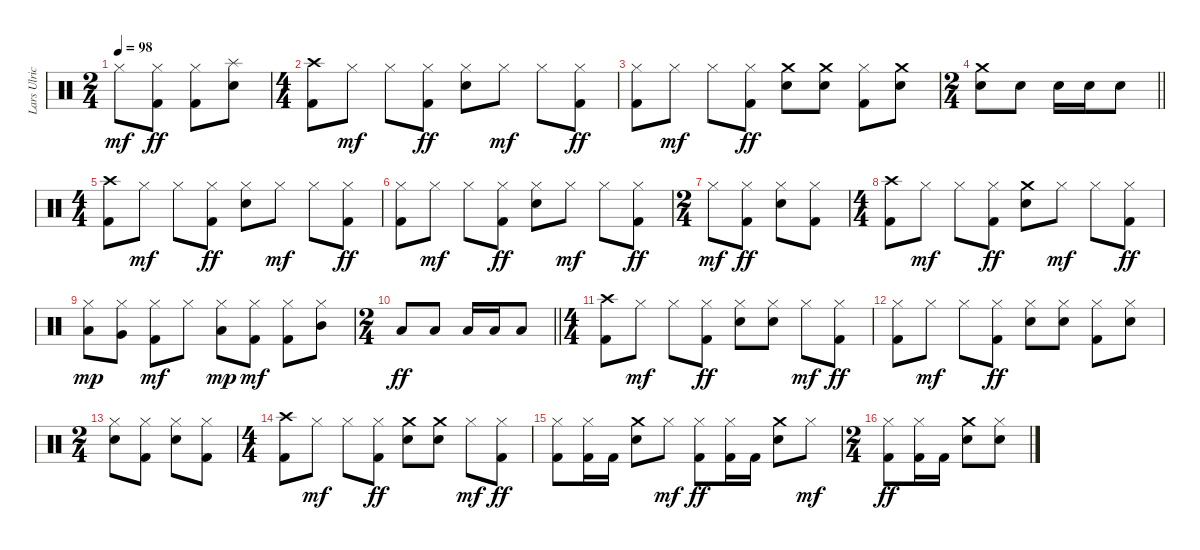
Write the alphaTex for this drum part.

\track ("Lars Ulrich" "Lars Ulric") {instrument percussion}
\staff {score}
\articulation defaults
\ts (2 4)
\tempo 98
\clef neutral
\ks c "Hi-Hat (closed)".8{dy mf}
("Hi-Hat (closed)" "Kick (hit) 2").8{dy ff} ("Hi-Hat (closed)" "Kick (hit) 2").8 ("Splash (hit)" "Snare (hit) 2").8 |
\ts (4 4)
("Crash high (hit)" "Kick (hit) 2").8 "Hi-Hat (closed)".8{dy mf} "Hi-Hat (closed)".8 ("Hi-Hat (closed)" "Kick (hit) 2").8{dy ff} ("Hi-Hat (closed)" "Snare (hit) 2").8 "Hi-Hat (closed)".8{dy mf} "Hi-Hat (closed)".8 ("Hi-Hat (closed)" "Kick (hit) 2").8{dy ff} |
("Hi-Hat (closed)" "Kick (hit) 2").8 "Hi-Hat (closed)".8{dy mf} "Hi-Hat (closed)".8 ("Hi-Hat (closed)" "Kick (hit) 2").8{dy ff} ("Crash medium (hit)" "Snare (hit) 2").8 ("Crash medium (hit)" "Snare (hit) 2").8 ("Hi-Hat (closed)" "Kick (hit) 2").8 ("Crash medium (hit)" "Snare (hit) 2").8 |
\ts (2 4)
\barLineRight lightlight
("Crash medium (hit)" "Snare (hit) 2").8 "Snare (hit) 2".8 "Snare (hit) 2".16 "Snare (hit) 2".16 "Snare (hit) 2".8 |
\ts (4 4)
("Crash high (hit)" "Kick (hit) 2").8 "Hi-Hat (closed)".8{dy mf} "Hi-Hat (closed)".8 ("Hi-Hat (closed)" "Kick (hit) 2").8{dy ff} ("Hi-Hat (closed)" "Snare (hit) 2").8 "Hi-Hat (closed)".8{dy mf} "Hi-Hat (closed)".8 ("Hi-Hat (closed)" "Kick (hit) 2").8{dy ff} |
("Hi-Hat (closed)" "Kick (hit) 2").8 "Hi-Hat (closed)".8{dy mf} "Hi-Hat (closed)".8 ("Hi-Hat (closed)" "Kick (hit) 2").8{dy ff} ("Hi-Hat (closed)" "Snare (hit) 2").8 "Hi-Hat (closed)".8{dy mf} "Hi-Hat (closed)".8 ("Hi-Hat (closed)" "Kick (hit) 2").8{dy ff} |
\ts (2 4)
"Hi-Hat (closed)".8{dy mf} ("Hi-Hat (closed)" "Kick (hit) 2").8{dy ff} ("Hi-Hat (closed)" "Snare (hit) 2").8 ("Hi-Hat (closed)" "Kick (hit) 2").8 |
\ts (4 4)
("Crash high (hit)" "Kick (hit) 2").8 "Hi-Hat (closed)".8{dy mf} "Hi-Hat (closed)".8 ("Hi-Hat (closed)" "Kick (hit) 2").8{dy ff} ("Crash medium (hit)" "Snare (hit) 2").8 "Hi-Hat (closed)".8{dy mf} "Hi-Hat (closed)".8 ("Hi-Hat (closed)" "Kick (hit) 2").8{dy ff} |
("Hi-Hat (closed)" "Low Tom (hit)").8{dy mp} ("Hi-Hat (closed)" "Very Low Tom (hit)").8 ("Hi-Hat (closed)" "Kick (hit) 2").8{dy mf} "Hi-Hat (closed)".8 ("Hi-Hat (closed)" "Low Floor Tom (hit)").8{dy mp} ("Hi-Hat (closed)" "Kick (hit) 2").8{dy mf} ("Hi-Hat (closed)" "Kick (hit) 2").8 ("Hi-Hat (closed)" "Mid Tom (hit)").8 |
\ts (2 4)
\barLineRight lightlight "Low Tom (hit)".8{dy ff} "Low Tom (hit)".8 "Low Floor Tom (hit)".16 "Low Floor Tom (hit)".16 "Low Floor Tom (hit)".8
|
\ts (4 4)
("Crash high (hit)" "Kick (hit) 2").8 "Hi-Hat (closed)".8{dy mf} "Hi-Hat (closed)".8 ("Hi-Hat (closed)" "Kick (hit) 2").8{dy ff} ("Hi-Hat (closed)" "Snare (hit) 2").8 ("Hi-Hat (closed)" "Snare (hit) 2").8 "Hi-Hat (closed)".8{dy mf} ("Hi-Hat (closed)" "Kick (hit) 2").8{dy ff} |
("Hi-Hat (closed)" "Kick (hit) 2").8 "Hi-Hat (closed)".8{dy mf} "Hi-Hat (closed)".8 ("Hi-Hat (closed)" "Kick (hit) 2").8{dy ff} ("Hi-Hat (closed)" "Snare (hit) 2").8 ("Hi-Hat (closed)" "Snare (hit) 2").8 ("Hi-Hat (closed)" "Kick (hit) 2").8 ("Hi-Hat (closed)" "Snare (hit) 2").8 |
\ts (2 4)
("Hi-Hat (closed)" "Snare (hit) 2").8 ("Hi-Hat (closed)" "Kick (hit) 2").8 ("Hi-Hat (closed)" "Snare (hit) 2").8 ("Hi-Hat (closed)" "Kick (hit) 2").8 |
\ts (4 4)
("Crash high (hit)" "Kick (hit) 2").8 "Hi-Hat (closed)".8{dy mf} "Hi-Hat (closed)".8 ("Hi-Hat (closed)" "Kick (hit) 2").8{dy ff} ("Crash medium (hit)" "Snare (hit) 2").8 ("Crash medium (hit)" "Snare (hit) 2").8 "Hi-Hat (closed)".8{dy mf} ("Hi-Hat (closed)" "Kick (hit) 2").8{dy ff} |
("Hi-Hat (closed)" "Kick (hit) 2").8 ("Hi-Hat (closed)" "Kick (hit) 2").16 "Kick (hit) 2".16 ("Crash medium (hit)" "Snare (hit) 2").8 "Hi-Hat (closed)".8{dy mf} ("Hi-Hat (closed)" "Kick (hit) 2").8{dy ff} ("Hi-Hat (closed)" "Kick (hit) 2").16 "Kick (hit) 2".16 ("Crash medium (hit)" "Snare (hit) 2").8 "Hi-Hat (closed)".8{dy mf} |
\ts (2 4)
("Hi-Hat (closed)" "Kick (hit) 2").8{dy ff} ("Hi-Hat (closed)" "Kick (hit) 2").16 "Kick (hit) 2".16 ("Crash medium (hit)" "Snare (hit) 2").8 ("Hi-Hat (closed)" "Snare (hit) 2").8
